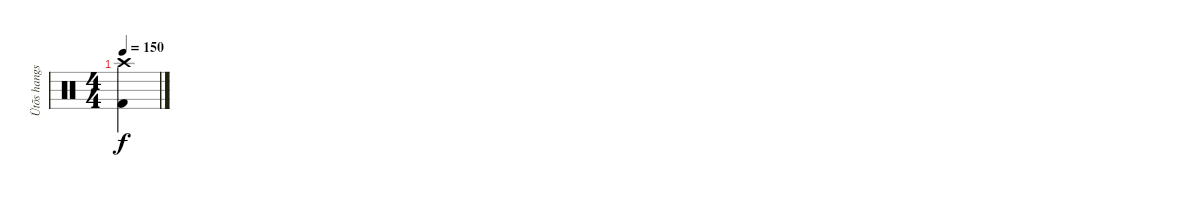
\track ("Ütõs hangszer" "Ütõs hangs") {instrument percussion}
\staff {score}
\articulation defaults
\ts (4 4)
\tempo 150
\clef neutral
\ks c
("Crash high (hit)" "Kick (hit) 2").4{dy f}
